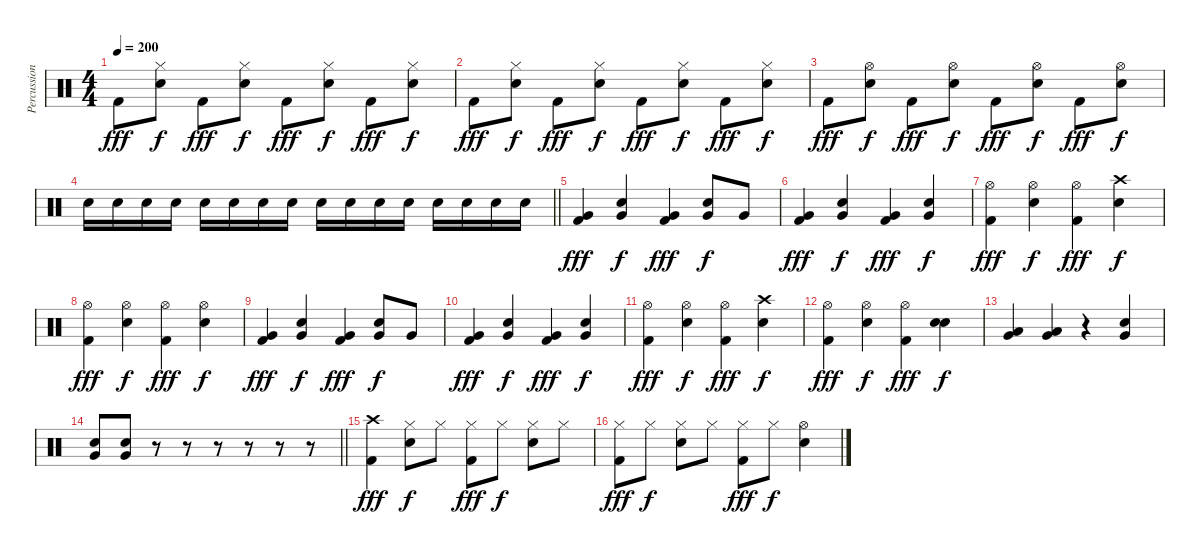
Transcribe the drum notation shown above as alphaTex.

\track ("Percussion" "Percussion") {instrument percussion}
\staff {score}
\articulation defaults
\ts (4 4)
\tempo 200
\clef neutral
\ks c "Kick (hit) 2".8{dy fff}
("Hi-Hat (closed)" "Electric Snare (hit)").8{dy f} "Kick (hit) 2".8{dy fff} ("Hi-Hat (closed)" "Electric Snare (hit)").8{dy f} "Kick (hit) 2".8{dy fff} ("Hi-Hat (closed)" "Electric Snare (hit)").8{dy f} "Kick (hit) 2".8{dy fff} ("Hi-Hat (closed)" "Electric Snare (hit)").8{dy f} |
"Kick (hit) 2".8{dy fff} ("Hi-Hat (closed)" "Electric Snare (hit)").8{dy f} "Kick (hit) 2".8{dy fff} ("Hi-Hat (closed)" "Electric Snare (hit)").8{dy f} "Kick (hit) 2".8{dy fff} ("Hi-Hat (closed)" "Electric Snare (hit)").8{dy f} "Kick (hit) 2".8{dy fff} ("Hi-Hat (closed)" "Electric Snare (hit)").8{dy f} |
"Kick (hit) 2".8{dy fff} ("Hi-Hat (open)" "Electric Snare (hit)").8{dy f} "Kick (hit) 2".8{dy fff} ("Hi-Hat (open)" "Electric Snare (hit)").8{dy f} "Kick (hit) 2".8{dy fff} ("Hi-Hat (open)" "Electric Snare (hit)").8{dy f} "Kick (hit) 2".8{dy fff} ("Hi-Hat (open)" "Electric Snare (hit)").8{dy f} |
\barLineRight lightlight "Electric Snare (hit)".16 "Electric Snare (hit)".16 "Electric Snare (hit)".16 "Electric Snare (hit)".16 "Electric Snare (hit)".16 "Electric Snare (hit)".16 "Electric Snare (hit)".16 "Electric Snare (hit)".16 "Electric Snare (hit)".16 "Electric Snare (hit)".16 "Electric Snare (hit)".16 "Electric Snare (hit)".16 "Electric Snare (hit)".16 "Electric Snare (hit)".16 "Electric Snare (hit)".16 "Electric Snare (hit)".16
|
("Very Low Tom (hit)" "Kick (hit) 2").4{dy fff} ("Very Low Tom (hit)" "Electric Snare (hit)").4{dy f} ("Very Low Tom (hit)" "Kick (hit) 2").4{dy fff} ("Very Low Tom (hit)" "Electric Snare (hit)").8{dy f} "Very Low Tom (hit)".8 |
("Very Low Tom (hit)" "Kick (hit) 2").4{dy fff} ("Very Low Tom (hit)" "Electric Snare (hit)").4{dy f} ("Very Low Tom (hit)" "Kick (hit) 2").4{dy fff} ("Very Low Tom (hit)" "Electric Snare (hit)").4{dy f} |
("Hi-Hat (open)" "Kick (hit) 2").4{dy fff} ("Hi-Hat (open)" "Electric Snare (hit)").4{dy f} ("Hi-Hat (open)" "Kick (hit) 2").4{dy fff} ("Crash high (hit)" "Electric Snare (hit)").4{dy f} |
("Hi-Hat (open)" "Kick (hit) 2").4{dy fff} ("Hi-Hat (open)" "Electric Snare (hit)").4{dy f} ("Hi-Hat (open)" "Kick (hit) 2").4{dy fff} ("Hi-Hat (open)" "Electric Snare (hit)").4{dy f} |
("Very Low Tom (hit)" "Kick (hit) 2").4{dy fff} ("Very Low Tom (hit)" "Electric Snare (hit)").4{dy f} ("Very Low Tom (hit)" "Kick (hit) 2").4{dy fff} ("Very Low Tom (hit)" "Electric Snare (hit)").8{dy f} "Very Low Tom (hit)".8 |
("Very Low Tom (hit)" "Kick (hit) 2").4{dy fff} ("Very Low Tom (hit)" "Electric Snare (hit)").4{dy f} ("Very Low Tom (hit)" "Kick (hit) 2").4{dy fff} ("Very Low Tom (hit)" "Electric Snare (hit)").4{dy f} |
("Hi-Hat (open)" "Kick (hit) 2").4{dy fff} ("Hi-Hat (open)" "Electric Snare (hit)").4{dy f} ("Hi-Hat (open)" "Kick (hit) 2").4{dy fff} ("Crash high (hit)" "Electric Snare (hit)").4{dy f} |
("Hi-Hat (open)" "Kick (hit) 2").4{dy fff} ("Hi-Hat (open)" "Electric Snare (hit)").4{dy f} ("Hi-Hat (open)" "Kick (hit) 2").4{dy fff} ("Electric Snare (hit)" "Electric Snare (hit)").4{bd 120 dy f} |
("Very Low Tom (hit)" "Low Tom (hit)").4 ("Very Low Tom (hit)" "Low Tom (hit)").4 r.4 ("Very Low Tom (hit)" "Electric Snare (hit)").4 |
\barLineRight lightlight
("Very Low Tom (hit)" "Electric Snare (hit)").8 ("Very Low Tom (hit)" "Electric Snare (hit)").8 r.8 r.8 r.8 r.8 r.8 r.8 |
("Crash high (hit)" "Kick (hit) 2").4{dy fff} ("Hi-Hat (closed)" "Electric Snare (hit)").8{dy f} "Hi-Hat (closed)".8 ("Hi-Hat (closed)" "Kick (hit) 2").8{dy fff} "Hi-Hat (closed)".8{dy f} ("Hi-Hat (closed)" "Electric Snare (hit)").8 "Hi-Hat (closed)".8 |
("Hi-Hat (closed)" "Kick (hit) 2").8{dy fff} "Hi-Hat (closed)".8{dy f} ("Hi-Hat (closed)" "Electric Snare (hit)").8 "Hi-Hat (closed)".8 ("Hi-Hat (closed)" "Kick (hit) 2").8{dy fff} "Hi-Hat (closed)".8{dy f} ("Hi-Hat (open)" "Electric Snare (hit)").4
